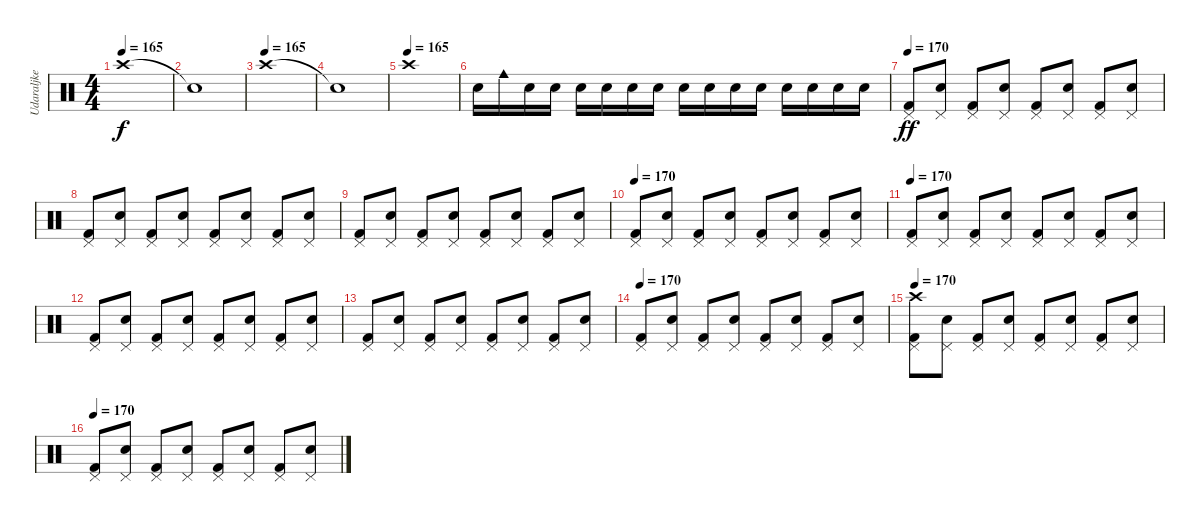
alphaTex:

\track ("Udaraljke" "Udaraljke") {instrument percussion}
\staff {score}
\articulation defaults
\ts (4 4)
\tempo 165
\clef neutral
\ks c "Crash high (hit)".1{dy f}
|
"Snare (hit)"{t}.1 |
\tempo (165)
"Crash high (hit)".1 |
"Snare (hit)"{t}.1 |
\tempo (165)
"Crash high (hit)".1 |
"Snare (hit) 2".16 "Cowbell medium (hit)".16 "Snare (hit) 2".16 "Snare (hit) 2".16 "Snare (hit) 2".16 "Snare (hit) 2".16 "Snare (hit) 2".16 "Snare (hit) 2".16 "Snare (hit) 2".16 "Snare (hit) 2".16 "Snare (hit) 2".16 "Snare (hit) 2".16 "Snare (hit) 2".16 "Snare (hit) 2".16 "Snare (hit) 2".16 "Snare (hit) 2".16 |
\tempo 170
("Kick (hit) 2" "Pedal Hi-Hat (hit)").8{dy ff} ("Snare (hit) 2" "Pedal Hi-Hat (hit)").8 ("Kick (hit) 2" "Pedal Hi-Hat (hit)").8 ("Snare (hit) 2" "Pedal Hi-Hat (hit)").8 ("Kick (hit) 2" "Pedal Hi-Hat (hit)").8 ("Snare (hit) 2" "Pedal Hi-Hat (hit)").8 ("Kick (hit) 2" "Pedal Hi-Hat (hit)").8 ("Snare (hit) 2" "Pedal Hi-Hat (hit)").8 |
("Kick (hit) 2" "Pedal Hi-Hat (hit)").8 ("Snare (hit) 2" "Pedal Hi-Hat (hit)").8 ("Kick (hit) 2" "Pedal Hi-Hat (hit)").8 ("Snare (hit) 2" "Pedal Hi-Hat (hit)").8 ("Kick (hit) 2" "Pedal Hi-Hat (hit)").8 ("Snare (hit) 2" "Pedal Hi-Hat (hit)").8 ("Kick (hit) 2" "Pedal Hi-Hat (hit)").8 ("Snare (hit) 2" "Pedal Hi-Hat (hit)").8 |
("Kick (hit) 2" "Pedal Hi-Hat (hit)").8 ("Snare (hit) 2" "Pedal Hi-Hat (hit)").8 ("Kick (hit) 2" "Pedal Hi-Hat (hit)").8 ("Snare (hit) 2" "Pedal Hi-Hat (hit)").8 ("Kick (hit) 2" "Pedal Hi-Hat (hit)").8 ("Snare (hit) 2" "Pedal Hi-Hat (hit)").8 ("Kick (hit) 2" "Pedal Hi-Hat (hit)").8 ("Snare (hit) 2" "Pedal Hi-Hat (hit)").8 |
\tempo 170
("Kick (hit) 2" "Pedal Hi-Hat (hit)").8 ("Snare (hit) 2" "Pedal Hi-Hat (hit)").8 ("Kick (hit) 2" "Pedal Hi-Hat (hit)").8 ("Snare (hit) 2" "Pedal Hi-Hat (hit)").8 ("Kick (hit) 2" "Pedal Hi-Hat (hit)").8 ("Snare (hit) 2" "Pedal Hi-Hat (hit)").8 ("Kick (hit) 2" "Pedal Hi-Hat (hit)").8 ("Snare (hit) 2" "Pedal Hi-Hat (hit)").8 |
\tempo 170
("Kick (hit) 2" "Pedal Hi-Hat (hit)").8 ("Snare (hit) 2" "Pedal Hi-Hat (hit)").8 ("Kick (hit) 2" "Pedal Hi-Hat (hit)").8 ("Snare (hit) 2" "Pedal Hi-Hat (hit)").8 ("Kick (hit) 2" "Pedal Hi-Hat (hit)").8 ("Snare (hit) 2" "Pedal Hi-Hat (hit)").8 ("Kick (hit) 2" "Pedal Hi-Hat (hit)").8 ("Snare (hit) 2" "Pedal Hi-Hat (hit)").8 |
("Kick (hit) 2" "Pedal Hi-Hat (hit)").8 ("Snare (hit) 2" "Pedal Hi-Hat (hit)").8 ("Kick (hit) 2" "Pedal Hi-Hat (hit)").8 ("Snare (hit) 2" "Pedal Hi-Hat (hit)").8 ("Kick (hit) 2" "Pedal Hi-Hat (hit)").8 ("Snare (hit) 2" "Pedal Hi-Hat (hit)").8 ("Kick (hit) 2" "Pedal Hi-Hat (hit)").8 ("Snare (hit) 2" "Pedal Hi-Hat (hit)").8 |
("Kick (hit) 2" "Pedal Hi-Hat (hit)").8 ("Snare (hit) 2" "Pedal Hi-Hat (hit)").8 ("Kick (hit) 2" "Pedal Hi-Hat (hit)").8 ("Snare (hit) 2" "Pedal Hi-Hat (hit)").8 ("Kick (hit) 2" "Pedal Hi-Hat (hit)").8 ("Snare (hit) 2" "Pedal Hi-Hat (hit)").8 ("Kick (hit) 2" "Pedal Hi-Hat (hit)").8 ("Snare (hit) 2" "Pedal Hi-Hat (hit)").8 |
\tempo 170
("Kick (hit) 2" "Pedal Hi-Hat (hit)").8 ("Snare (hit) 2" "Pedal Hi-Hat (hit)").8 ("Kick (hit) 2" "Pedal Hi-Hat (hit)").8 ("Snare (hit) 2" "Pedal Hi-Hat (hit)").8 ("Kick (hit) 2" "Pedal Hi-Hat (hit)").8 ("Snare (hit) 2" "Pedal Hi-Hat (hit)").8 ("Kick (hit) 2" "Pedal Hi-Hat (hit)").8 ("Snare (hit) 2" "Pedal Hi-Hat (hit)").8 |
\tempo 170
("Kick (hit) 2" "Pedal Hi-Hat (hit)" "Crash high (hit)").8 ("Snare (hit) 2" "Pedal Hi-Hat (hit)").8 ("Kick (hit) 2" "Pedal Hi-Hat (hit)").8 ("Snare (hit) 2" "Pedal Hi-Hat (hit)").8 ("Kick (hit) 2" "Pedal Hi-Hat (hit)").8 ("Snare (hit) 2" "Pedal Hi-Hat (hit)").8 ("Kick (hit) 2" "Pedal Hi-Hat (hit)").8 ("Snare (hit) 2" "Pedal Hi-Hat (hit)").8 |
\tempo 170
("Kick (hit) 2" "Pedal Hi-Hat (hit)").8 ("Snare (hit) 2" "Pedal Hi-Hat (hit)").8 ("Kick (hit) 2" "Pedal Hi-Hat (hit)").8 ("Snare (hit) 2" "Pedal Hi-Hat (hit)").8 ("Kick (hit) 2" "Pedal Hi-Hat (hit)").8 ("Snare (hit) 2" "Pedal Hi-Hat (hit)").8 ("Kick (hit) 2" "Pedal Hi-Hat (hit)").8 ("Snare (hit) 2" "Pedal Hi-Hat (hit)").8
